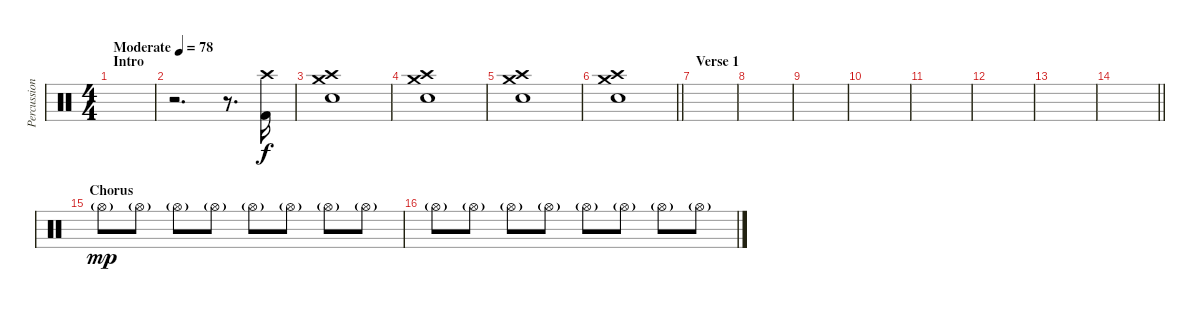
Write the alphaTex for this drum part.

\track ("Percussion" "Percussion") {instrument percussion}
\staff {score}
\articulation defaults
\ts (4 4)
\section ("" "Intro")
\tempo (78 "Moderate")
\clef neutral
\ks c
|
r.2{d} r.8{d} ("Kick (hit) 2" "Crash high (hit)").16 |
("Snare (hit) 2" "Crash high (hit)" "Crash medium (hit)").1 |
("Snare (hit) 2" "Crash high (hit)" "Crash medium (hit)").1 |
("Snare (hit) 2" "Crash high (hit)" "Crash medium (hit)").1 |
\barLineRight lightlight
("Snare (hit) 2" "Crash high (hit)" "Crash medium (hit)").1 |
\section ("" "Verse 1")
|
|
|
|
|
|
|
\barLineRight lightlight
|
\section ("" "Chorus")
"Hi-Hat (open)"{g}.8{dy mp} "Hi-Hat (open)"{g}.8 "Hi-Hat (open)"{g}.8 "Hi-Hat (open)"{g}.8 "Hi-Hat (open)"{g}.8 "Hi-Hat (open)"{g}.8 "Hi-Hat (open)"{g}.8 "Hi-Hat (open)"{g}.8 |
"Hi-Hat (open)"{g}.8 "Hi-Hat (open)"{g}.8 "Hi-Hat (open)"{g}.8 "Hi-Hat (open)"{g}.8 "Hi-Hat (open)"{g}.8 "Hi-Hat (open)"{g}.8 "Hi-Hat (open)"{g}.8 "Hi-Hat (open)"{g}.8
